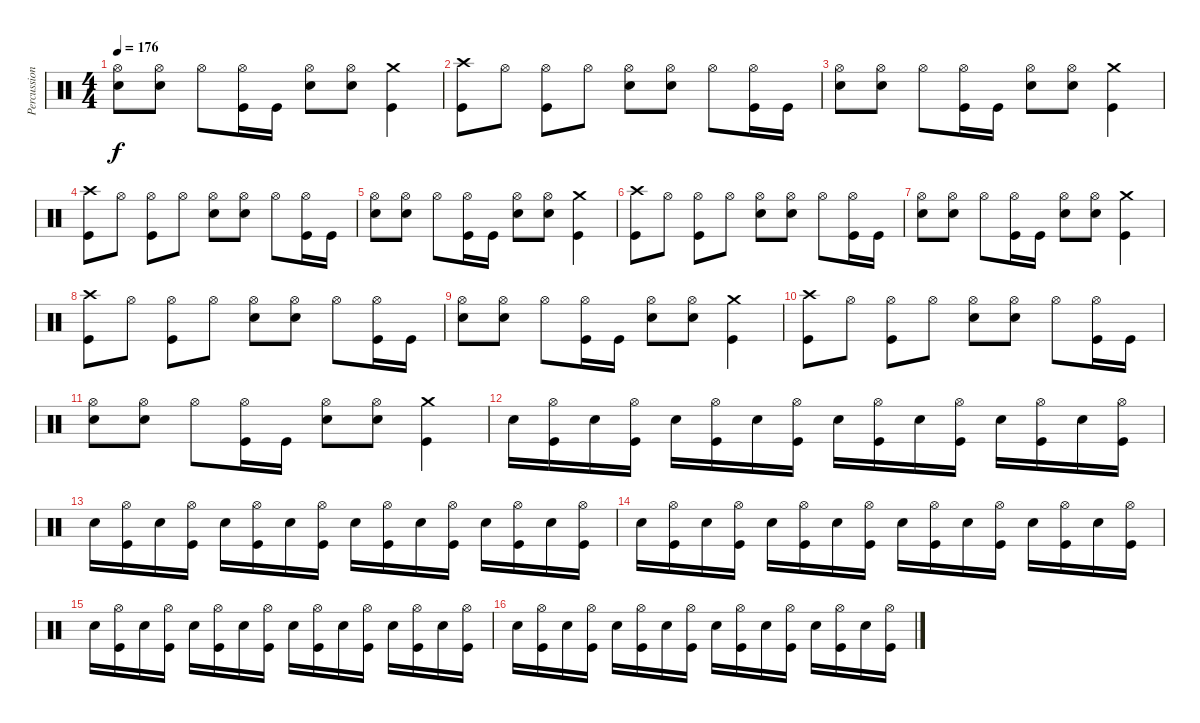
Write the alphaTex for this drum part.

\track ("Percussions" "Percussion") {instrument percussion}
\staff {score}
\articulation defaults
\ts (4 4)
\tempo 176
\clef neutral
\ks c
("Hi-Hat (open)" "Snare (hit) 2").8{dy f} ("Hi-Hat (open)" "Snare (hit) 2").8 "Hi-Hat (open)".8 ("Hi-Hat (open)" "Kick (hit)").16 "Kick (hit)".16 ("Hi-Hat (open)" "Snare (hit) 2").8 ("Hi-Hat (open)" "Snare (hit) 2").8 ("Crash medium (hit)" "Kick (hit)").4 |
("Crash high (hit)" "Kick (hit)").8 "Hi-Hat (open)".8 ("Hi-Hat (open)" "Kick (hit)").8 "Hi-Hat (open)".8 ("Hi-Hat (open)" "Snare (hit) 2").8 ("Hi-Hat (open)" "Snare (hit) 2").8 "Hi-Hat (open)".8 ("Hi-Hat (open)" "Kick (hit)").16 "Kick (hit)".16 |
("Hi-Hat (open)" "Snare (hit) 2").8 ("Hi-Hat (open)" "Snare (hit) 2").8 "Hi-Hat (open)".8 ("Hi-Hat (open)" "Kick (hit)").16 "Kick (hit)".16 ("Hi-Hat (open)" "Snare (hit) 2").8 ("Hi-Hat (open)" "Snare (hit) 2").8 ("Crash medium (hit)" "Kick (hit)").4 |
("Crash high (hit)" "Kick (hit)").8 "Hi-Hat (open)".8 ("Hi-Hat (open)" "Kick (hit)").8 "Hi-Hat (open)".8 ("Hi-Hat (open)" "Snare (hit) 2").8 ("Hi-Hat (open)" "Snare (hit) 2").8 "Hi-Hat (open)".8 ("Hi-Hat (open)" "Kick (hit)").16 "Kick (hit)".16 |
("Hi-Hat (open)" "Snare (hit) 2").8 ("Hi-Hat (open)" "Snare (hit) 2").8 "Hi-Hat (open)".8 ("Hi-Hat (open)" "Kick (hit)").16 "Kick (hit)".16 ("Hi-Hat (open)" "Snare (hit) 2").8 ("Hi-Hat (open)" "Snare (hit) 2").8 ("Crash medium (hit)" "Kick (hit)").4 |
("Crash high (hit)" "Kick (hit)").8 "Hi-Hat (open)".8 ("Hi-Hat (open)" "Kick (hit)").8 "Hi-Hat (open)".8 ("Hi-Hat (open)" "Snare (hit) 2").8 ("Hi-Hat (open)" "Snare (hit) 2").8 "Hi-Hat (open)".8 ("Hi-Hat (open)" "Kick (hit)").16 "Kick (hit)".16 |
("Hi-Hat (open)" "Snare (hit) 2").8 ("Hi-Hat (open)" "Snare (hit) 2").8 "Hi-Hat (open)".8 ("Hi-Hat (open)" "Kick (hit)").16 "Kick (hit)".16 ("Hi-Hat (open)" "Snare (hit) 2").8 ("Hi-Hat (open)" "Snare (hit) 2").8 ("Crash medium (hit)" "Kick (hit)").4 |
("Crash high (hit)" "Kick (hit)").8 "Hi-Hat (open)".8 ("Hi-Hat (open)" "Kick (hit)").8 "Hi-Hat (open)".8 ("Hi-Hat (open)" "Snare (hit) 2").8 ("Hi-Hat (open)" "Snare (hit) 2").8 "Hi-Hat (open)".8 ("Hi-Hat (open)" "Kick (hit)").16 "Kick (hit)".16 |
("Hi-Hat (open)" "Snare (hit) 2").8 ("Hi-Hat (open)" "Snare (hit) 2").8 "Hi-Hat (open)".8 ("Hi-Hat (open)" "Kick (hit)").16 "Kick (hit)".16 ("Hi-Hat (open)" "Snare (hit) 2").8 ("Hi-Hat (open)" "Snare (hit) 2").8 ("Crash medium (hit)" "Kick (hit)").4 |
("Crash high (hit)" "Kick (hit)").8 "Hi-Hat (open)".8 ("Hi-Hat (open)" "Kick (hit)").8 "Hi-Hat (open)".8 ("Hi-Hat (open)" "Snare (hit) 2").8 ("Hi-Hat (open)" "Snare (hit) 2").8 "Hi-Hat (open)".8 ("Hi-Hat (open)" "Kick (hit)").16 "Kick (hit)".16 |
("Hi-Hat (open)" "Snare (hit) 2").8 ("Hi-Hat (open)" "Snare (hit) 2").8 "Hi-Hat (open)".8 ("Hi-Hat (open)" "Kick (hit)").16 "Kick (hit)".16 ("Hi-Hat (open)" "Snare (hit) 2").8 ("Hi-Hat (open)" "Snare (hit) 2").8 ("Crash medium (hit)" "Kick (hit)").4 |
"Snare (hit) 2".16 ("Hi-Hat (open)" "Kick (hit)").16 "Snare (hit) 2".16 ("Hi-Hat (open)" "Kick (hit)").16 "Snare (hit) 2".16 ("Hi-Hat (open)" "Kick (hit)").16 "Snare (hit) 2".16 ("Hi-Hat (open)" "Kick (hit)").16 "Snare (hit) 2".16 ("Hi-Hat (open)" "Kick (hit)").16 "Snare (hit) 2".16 ("Hi-Hat (open)" "Kick (hit)").16 "Snare (hit) 2".16 ("Hi-Hat (open)" "Kick (hit)").16 "Snare (hit) 2".16 ("Hi-Hat (open)" "Kick (hit)").16 |
"Snare (hit) 2".16 ("Hi-Hat (open)" "Kick (hit)").16 "Snare (hit) 2".16 ("Hi-Hat (open)" "Kick (hit)").16 "Snare (hit) 2".16 ("Hi-Hat (open)" "Kick (hit)").16 "Snare (hit) 2".16 ("Hi-Hat (open)" "Kick (hit)").16 "Snare (hit) 2".16 ("Hi-Hat (open)" "Kick (hit)").16 "Snare (hit) 2".16 ("Hi-Hat (open)" "Kick (hit)").16 "Snare (hit) 2".16 ("Hi-Hat (open)" "Kick (hit)").16 "Snare (hit) 2".16 ("Hi-Hat (open)" "Kick (hit)").16 |
"Snare (hit) 2".16 ("Hi-Hat (open)" "Kick (hit)").16 "Snare (hit) 2".16 ("Hi-Hat (open)" "Kick (hit)").16 "Snare (hit) 2".16 ("Hi-Hat (open)" "Kick (hit)").16 "Snare (hit) 2".16 ("Hi-Hat (open)" "Kick (hit)").16 "Snare (hit) 2".16 ("Hi-Hat (open)" "Kick (hit)").16 "Snare (hit) 2".16 ("Hi-Hat (open)" "Kick (hit)").16 "Snare (hit) 2".16 ("Hi-Hat (open)" "Kick (hit)").16 "Snare (hit) 2".16 ("Hi-Hat (open)" "Kick (hit)").16 |
"Snare (hit) 2".16 ("Hi-Hat (open)" "Kick (hit)").16 "Snare (hit) 2".16 ("Hi-Hat (open)" "Kick (hit)").16 "Snare (hit) 2".16 ("Hi-Hat (open)" "Kick (hit)").16 "Snare (hit) 2".16 ("Hi-Hat (open)" "Kick (hit)").16 "Snare (hit) 2".16 ("Hi-Hat (open)" "Kick (hit)").16 "Snare (hit) 2".16 ("Hi-Hat (open)" "Kick (hit)").16 "Snare (hit) 2".16 ("Hi-Hat (open)" "Kick (hit)").16 "Snare (hit) 2".16 ("Hi-Hat (open)" "Kick (hit)").16 |
"Snare (hit) 2".16 ("Hi-Hat (open)" "Kick (hit)").16 "Snare (hit) 2".16 ("Hi-Hat (open)" "Kick (hit)").16 "Snare (hit) 2".16 ("Hi-Hat (open)" "Kick (hit)").16 "Snare (hit) 2".16 ("Hi-Hat (open)" "Kick (hit)").16 "Snare (hit) 2".16 ("Hi-Hat (open)" "Kick (hit)").16 "Snare (hit) 2".16 ("Hi-Hat (open)" "Kick (hit)").16 "Snare (hit) 2".16 ("Hi-Hat (open)" "Kick (hit)").16 "Snare (hit) 2".16 ("Hi-Hat (open)" "Kick (hit)").16
